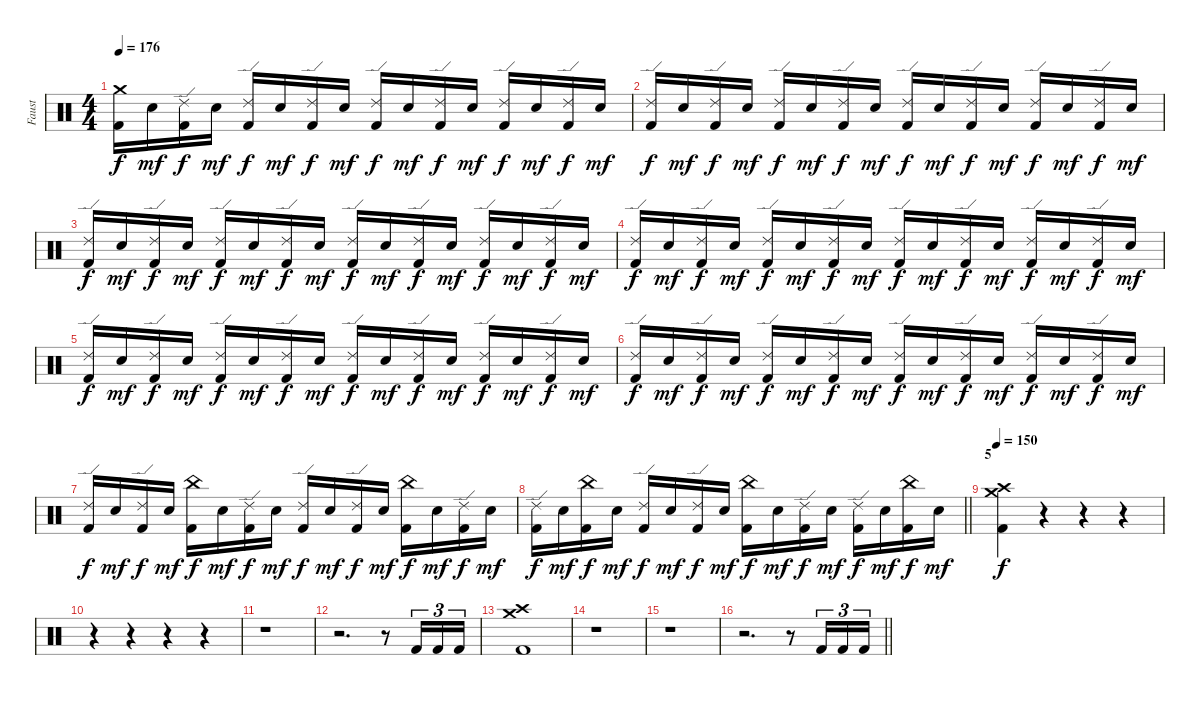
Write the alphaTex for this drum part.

\track ("Faust" "Faust") {instrument percussion}
\staff {score}
\articulation defaults
\ts (4 4)
\section ("" "")
\tempo 176
\clef neutral
\ks c
("Crash medium (hit)" "Kick (hit) 2").16{dy f} "Electric Snare (hit)".16{dy mf} ("Ride (edge) 2" "Kick (hit) 2").16{dy f} "Electric Snare (hit)".16{dy mf} ("Ride (edge) 2" "Kick (hit) 2").16{dy f} "Electric Snare (hit)".16{dy mf} ("Ride (edge) 2" "Kick (hit) 2").16{dy f} "Electric Snare (hit)".16{dy mf} ("Ride (edge) 2" "Kick (hit) 2").16{dy f} "Electric Snare (hit)".16{dy mf} ("Ride (edge) 2" "Kick (hit) 2").16{dy f} "Electric Snare (hit)".16{dy mf} ("Ride (edge) 2" "Kick (hit) 2").16{dy f} "Electric Snare (hit)".16{dy mf} ("Ride (edge) 2" "Kick (hit) 2").16{dy f} "Electric Snare (hit)".16{dy mf} |
("Ride (edge) 2" "Kick (hit) 2").16{dy f} "Electric Snare (hit)".16{dy mf} ("Ride (edge) 2" "Kick (hit) 2").16{dy f} "Electric Snare (hit)".16{dy mf} ("Ride (edge) 2" "Kick (hit) 2").16{dy f} "Electric Snare (hit)".16{dy mf} ("Ride (edge) 2" "Kick (hit) 2").16{dy f} "Electric Snare (hit)".16{dy mf} ("Ride (edge) 2" "Kick (hit) 2").16{dy f} "Electric Snare (hit)".16{dy mf} ("Ride (edge) 2" "Kick (hit) 2").16{dy f} "Electric Snare (hit)".16{dy mf} ("Ride (edge) 2" "Kick (hit) 2").16{dy f} "Electric Snare (hit)".16{dy mf} ("Ride (edge) 2" "Kick (hit) 2").16{dy f} "Electric Snare (hit)".16{dy mf} |
("Ride (edge) 2" "Kick (hit) 2").16{dy f} "Electric Snare (hit)".16{dy mf} ("Ride (edge) 2" "Kick (hit) 2").16{dy f} "Electric Snare (hit)".16{dy mf} ("Ride (edge) 2" "Kick (hit) 2").16{dy f} "Electric Snare (hit)".16{dy mf} ("Ride (edge) 2" "Kick (hit) 2").16{dy f} "Electric Snare (hit)".16{dy mf} ("Ride (edge) 2" "Kick (hit) 2").16{dy f} "Electric Snare (hit)".16{dy mf} ("Ride (edge) 2" "Kick (hit) 2").16{dy f} "Electric Snare (hit)".16{dy mf} ("Ride (edge) 2" "Kick (hit) 2").16{dy f} "Electric Snare (hit)".16{dy mf} ("Ride (edge) 2" "Kick (hit) 2").16{dy f} "Electric Snare (hit)".16{dy mf} |
("Ride (edge) 2" "Kick (hit) 2").16{dy f} "Electric Snare (hit)".16{dy mf} ("Ride (edge) 2" "Kick (hit) 2").16{dy f} "Electric Snare (hit)".16{dy mf} ("Ride (edge) 2" "Kick (hit) 2").16{dy f} "Electric Snare (hit)".16{dy mf} ("Ride (edge) 2" "Kick (hit) 2").16{dy f} "Electric Snare (hit)".16{dy mf} ("Ride (edge) 2" "Kick (hit) 2").16{dy f} "Electric Snare (hit)".16{dy mf} ("Ride (edge) 2" "Kick (hit) 2").16{dy f} "Electric Snare (hit)".16{dy mf} ("Ride (edge) 2" "Kick (hit) 2").16{dy f} "Electric Snare (hit)".16{dy mf} ("Ride (edge) 2" "Kick (hit) 2").16{dy f} "Electric Snare (hit)".16{dy mf} |
("Ride (edge) 2" "Kick (hit) 2").16{dy f} "Electric Snare (hit)".16{dy mf} ("Ride (edge) 2" "Kick (hit) 2").16{dy f} "Electric Snare (hit)".16{dy mf} ("Ride (edge) 2" "Kick (hit) 2").16{dy f} "Electric Snare (hit)".16{dy mf} ("Ride (edge) 2" "Kick (hit) 2").16{dy f} "Electric Snare (hit)".16{dy mf} ("Ride (edge) 2" "Kick (hit) 2").16{dy f} "Electric Snare (hit)".16{dy mf} ("Ride (edge) 2" "Kick (hit) 2").16{dy f} "Electric Snare (hit)".16{dy mf} ("Ride (edge) 2" "Kick (hit) 2").16{dy f} "Electric Snare (hit)".16{dy mf} ("Ride (edge) 2" "Kick (hit) 2").16{dy f} "Electric Snare (hit)".16{dy mf} |
("Ride (edge) 2" "Kick (hit) 2").16{dy f} "Electric Snare (hit)".16{dy mf} ("Ride (edge) 2" "Kick (hit) 2").16{dy f} "Electric Snare (hit)".16{dy mf} ("Ride (edge) 2" "Kick (hit) 2").16{dy f} "Electric Snare (hit)".16{dy mf} ("Ride (edge) 2" "Kick (hit) 2").16{dy f} "Electric Snare (hit)".16{dy mf} ("Ride (edge) 2" "Kick (hit) 2").16{dy f} "Electric Snare (hit)".16{dy mf} ("Ride (edge) 2" "Kick (hit) 2").16{dy f} "Electric Snare (hit)".16{dy mf} ("Ride (edge) 2" "Kick (hit) 2").16{dy f} "Electric Snare (hit)".16{dy mf} ("Ride (edge) 2" "Kick (hit) 2").16{dy f} "Electric Snare (hit)".16{dy mf} |
("Ride (edge) 2" "Kick (hit) 2").16{dy f} "Electric Snare (hit)".16{dy mf} ("Ride (edge) 2" "Kick (hit) 2").16{dy f} "Electric Snare (hit)".16{dy mf} ("China (hit)" "Kick (hit) 2").16{dy f} "Electric Snare (hit)".16{dy mf} ("Ride (edge) 2" "Kick (hit) 2").16{dy f} "Electric Snare (hit)".16{dy mf} ("Ride (edge) 2" "Kick (hit) 2").16{dy f} "Electric Snare (hit)".16{dy mf} ("Ride (edge) 2" "Kick (hit) 2").16{dy f} "Electric Snare (hit)".16{dy mf} ("China (hit)" "Kick (hit) 2").16{dy f} "Electric Snare (hit)".16{dy mf} ("Ride (edge) 2" "Kick (hit) 2").16{dy f} "Electric Snare (hit)".16{dy mf} |
\barLineRight lightlight
("Ride (edge) 2" "Kick (hit) 2").16{dy f} "Electric Snare (hit)".16{dy mf} ("China (hit)" "Kick (hit) 2").16{dy f} "Electric Snare (hit)".16{dy mf} ("Ride (edge) 2" "Kick (hit) 2").16{dy f} "Electric Snare (hit)".16{dy mf} ("Ride (edge) 2" "Kick (hit) 2").16{dy f} "Electric Snare (hit)".16{dy mf} ("China (hit)" "Kick (hit) 2").16{dy f} "Electric Snare (hit)".16{dy mf} ("Ride (edge) 2" "Kick (hit) 2").16{dy f} "Electric Snare (hit)".16{dy mf} ("Ride (edge) 2" "Kick (hit) 2").16{dy f} "Electric Snare (hit)".16{dy mf} ("China (hit)" "Kick (hit) 2").16{dy f} "Electric Snare (hit)".16{dy mf} |
\section ("" "5")
\tempo 150
("Crash medium (hit)" "Crash high (hit)" "Kick (hit) 2").4{dy f} r.4 r.4 r.4 |
r.4 r.4 r.4 r.4 |
r.1 |
r.2{d} r.8 "Kick (hit) 2".16{tu (3 2)} "Kick (hit) 2".16{tu (3 2)} "Kick (hit) 2".16{tu (3 2)} |
("Crash medium (hit)" "Crash high (hit)" "Kick (hit) 2").1 |
r.1 |
r.1 |
\barLineRight lightlight
r.2{d} r.8 "Kick (hit) 2".16{tu (3 2)} "Kick (hit) 2".16{tu (3 2)} "Kick (hit) 2".16{tu (3 2)}
